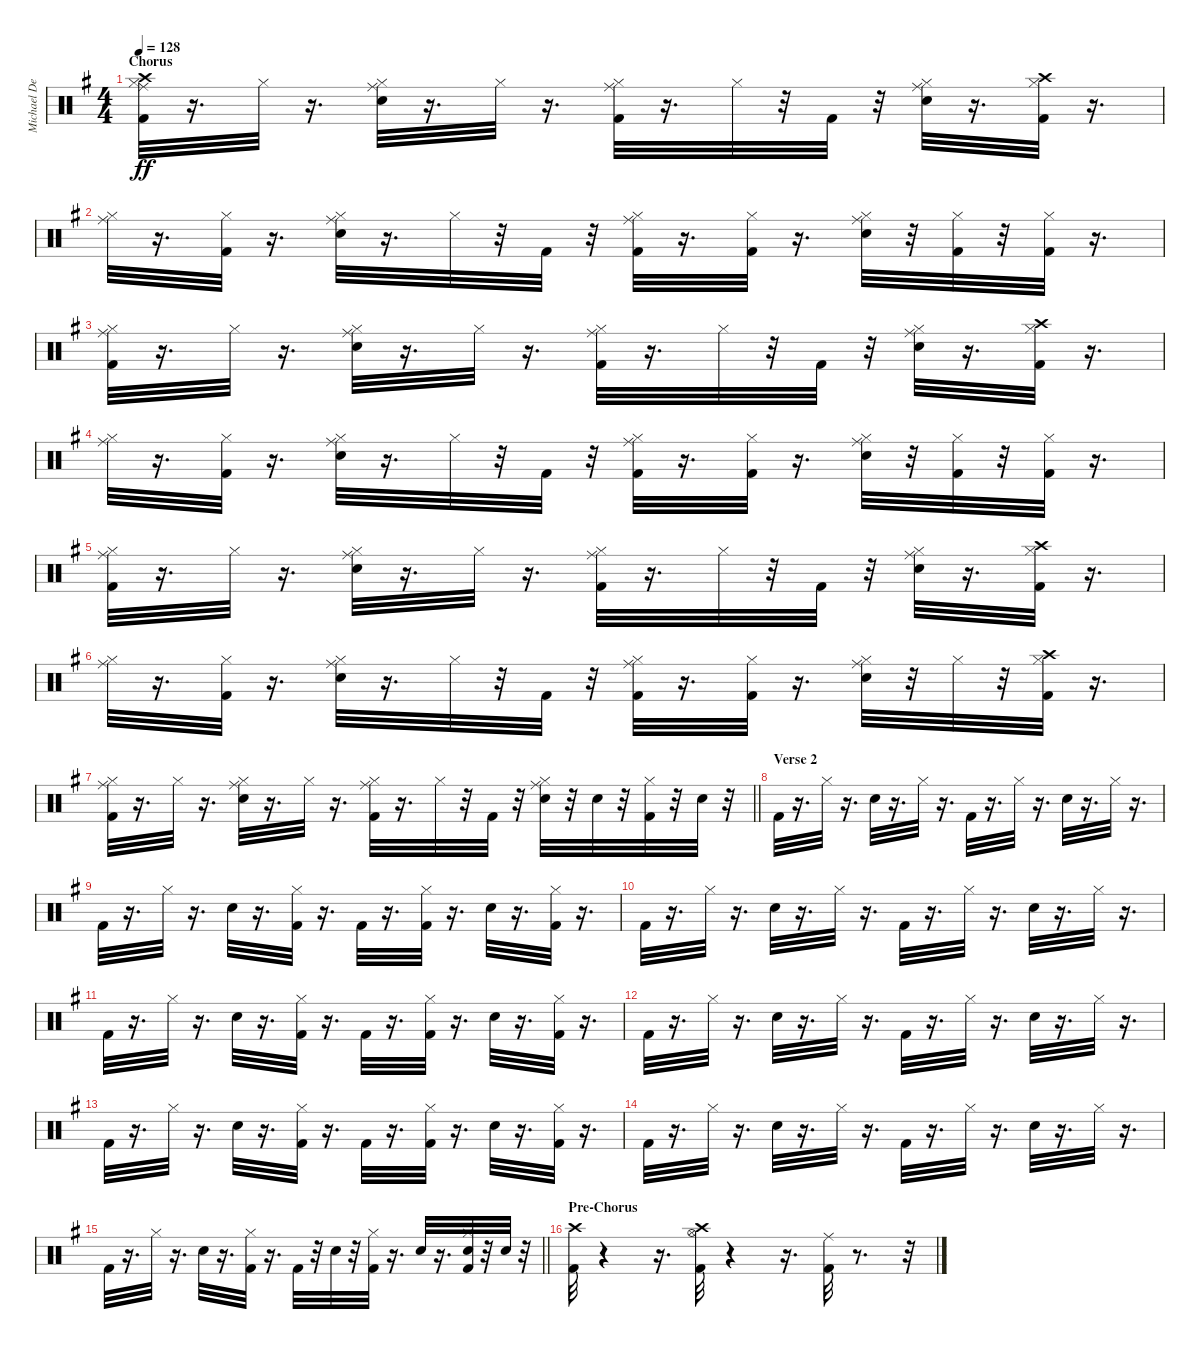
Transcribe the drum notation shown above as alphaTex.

\track ("Michael DeRosier" "Michael De") {instrument percussion}
\staff {score}
\articulation defaults
\ts (4 4)
\section ("" "Chorus")
\tempo 128
\clef neutral
\ks g
("Kick (hit) 2" "Hi-Hat (closed)" "Crash high (hit)" "Ride (middle)").32{dy ff} r.16{d} "Hi-Hat (closed)".32 r.16{d} ("Snare (hit) 2" "Hi-Hat (closed)" "Ride (middle)").32 r.16{d} "Hi-Hat (closed)".32 r.16{d} ("Kick (hit) 2" "Hi-Hat (closed)" "Ride (middle)").32 r.16{d} "Hi-Hat (closed)".32 r.32 "Kick (hit) 2".32 r.32 ("Snare (hit) 2" "Hi-Hat (closed)" "Ride (middle)").32 r.16{d} ("Kick (hit) 2" "Hi-Hat (closed)" "Crash high (hit)").32 r.16{d} |
("Hi-Hat (closed)" "Ride (middle)").32 r.16{d} ("Kick (hit) 2" "Hi-Hat (closed)").32 r.16{d} ("Snare (hit) 2" "Hi-Hat (closed)" "Ride (middle)").32 r.16{d} "Hi-Hat (closed)".32 r.32 "Kick (hit) 2".32 r.32 ("Kick (hit) 2" "Hi-Hat (closed)" "Ride (middle)").32 r.16{d} ("Kick (hit) 2" "Hi-Hat (closed)").32 r.16{d} ("Snare (hit) 2" "Hi-Hat (closed)" "Ride (middle)").32 r.32 ("Kick (hit) 2" "Hi-Hat (closed)").32 r.32 ("Kick (hit) 2" "Hi-Hat (closed)").32 r.16{d} |
("Kick (hit) 2" "Hi-Hat (closed)" "Ride (middle)").32 r.16{d} "Hi-Hat (closed)".32 r.16{d} ("Snare (hit) 2" "Hi-Hat (closed)" "Ride (middle)").32 r.16{d} "Hi-Hat (closed)".32 r.16{d} ("Kick (hit) 2" "Hi-Hat (closed)" "Ride (middle)").32 r.16{d} "Hi-Hat (closed)".32 r.32 "Kick (hit) 2".32 r.32 ("Snare (hit) 2" "Hi-Hat (closed)" "Ride (middle)").32 r.16{d} ("Kick (hit) 2" "Hi-Hat (closed)" "Crash high (hit)").32 r.16{d} |
("Hi-Hat (closed)" "Ride (middle)").32 r.16{d} ("Kick (hit) 2" "Hi-Hat (closed)").32 r.16{d} ("Snare (hit) 2" "Hi-Hat (closed)" "Ride (middle)").32 r.16{d} "Hi-Hat (closed)".32 r.32 "Kick (hit) 2".32 r.32 ("Kick (hit) 2" "Hi-Hat (closed)" "Ride (middle)").32 r.16{d} ("Kick (hit) 2" "Hi-Hat (closed)").32 r.16{d} ("Snare (hit) 2" "Hi-Hat (closed)" "Ride (middle)").32 r.32 ("Kick (hit) 2" "Hi-Hat (closed)").32 r.32 ("Kick (hit) 2" "Hi-Hat (closed)").32 r.16{d} |
("Kick (hit) 2" "Hi-Hat (closed)" "Ride (middle)").32 r.16{d} "Hi-Hat (closed)".32 r.16{d} ("Snare (hit) 2" "Hi-Hat (closed)" "Ride (middle)").32 r.16{d} "Hi-Hat (closed)".32 r.16{d} ("Kick (hit) 2" "Hi-Hat (closed)" "Ride (middle)").32 r.16{d} "Hi-Hat (closed)".32 r.32 "Kick (hit) 2".32 r.32 ("Snare (hit) 2" "Hi-Hat (closed)" "Ride (middle)").32 r.16{d} ("Kick (hit) 2" "Hi-Hat (closed)" "Crash high (hit)").32 r.16{d} |
("Hi-Hat (closed)" "Ride (middle)").32 r.16{d} ("Kick (hit) 2" "Hi-Hat (closed)").32 r.16{d} ("Snare (hit) 2" "Hi-Hat (closed)" "Ride (middle)").32 r.16{d} "Hi-Hat (closed)".32 r.32 "Kick (hit) 2".32 r.32 ("Kick (hit) 2" "Hi-Hat (closed)" "Ride (middle)").32 r.16{d} ("Kick (hit) 2" "Hi-Hat (closed)").32 r.16{d} ("Snare (hit) 2" "Hi-Hat (closed)" "Ride (middle)").32 r.32 "Hi-Hat (closed)".32 r.32 ("Kick (hit) 2" "Hi-Hat (closed)" "Crash high (hit)").32 r.16{d} |
\barLineRight lightlight
("Kick (hit) 2" "Hi-Hat (closed)" "Ride (middle)").32 r.16{d} "Hi-Hat (closed)".32 r.16{d} ("Snare (hit) 2" "Hi-Hat (closed)" "Ride (middle)").32 r.16{d} "Hi-Hat (closed)".32 r.16{d} ("Kick (hit) 2" "Hi-Hat (closed)" "Ride (middle)").32 r.16{d} "Hi-Hat (closed)".32 r.32 "Kick (hit) 2".32 r.32 ("Snare (hit) 2" "Hi-Hat (closed)" "Ride (middle)").32 r.32 "Snare (hit) 2".32 r.32 ("Kick (hit) 2" "Hi-Hat (closed)").32 r.32 "Snare (hit) 2".32 r.32 |
\section ("" "Verse 2")
"Kick (hit) 2".32 r.16{d} "Hi-Hat (closed)".32 r.16{d} "Snare (hit) 2".32 r.16{d} "Hi-Hat (closed)".32 r.16{d} "Kick (hit) 2".32 r.16{d} "Hi-Hat (closed)".32 r.16{d} "Snare (hit) 2".32 r.16{d} "Hi-Hat (closed)".32 r.16{d} |
"Kick (hit) 2".32 r.16{d} "Hi-Hat (closed)".32 r.16{d} "Snare (hit) 2".32 r.16{d} ("Kick (hit) 2" "Hi-Hat (closed)").32 r.16{d} "Kick (hit) 2".32 r.16{d} ("Kick (hit) 2" "Hi-Hat (closed)").32 r.16{d} "Snare (hit) 2".32 r.16{d} ("Kick (hit) 2" "Hi-Hat (closed)").32 r.16{d} |
"Kick (hit) 2".32 r.16{d} "Hi-Hat (closed)".32 r.16{d} "Snare (hit) 2".32 r.16{d} "Hi-Hat (closed)".32 r.16{d} "Kick (hit) 2".32 r.16{d} "Hi-Hat (closed)".32 r.16{d} "Snare (hit) 2".32 r.16{d} "Hi-Hat (closed)".32 r.16{d} |
"Kick (hit) 2".32 r.16{d} "Hi-Hat (closed)".32 r.16{d} "Snare (hit) 2".32 r.16{d} ("Kick (hit) 2" "Hi-Hat (closed)").32 r.16{d} "Kick (hit) 2".32 r.16{d} ("Kick (hit) 2" "Hi-Hat (closed)").32 r.16{d} "Snare (hit) 2".32 r.16{d} ("Kick (hit) 2" "Hi-Hat (closed)").32 r.16{d} |
"Kick (hit) 2".32 r.16{d} "Hi-Hat (closed)".32 r.16{d} "Snare (hit) 2".32 r.16{d} "Hi-Hat (closed)".32 r.16{d} "Kick (hit) 2".32 r.16{d} "Hi-Hat (closed)".32 r.16{d} "Snare (hit) 2".32 r.16{d} "Hi-Hat (closed)".32 r.16{d} |
"Kick (hit) 2".32 r.16{d} "Hi-Hat (closed)".32 r.16{d} "Snare (hit) 2".32 r.16{d} ("Kick (hit) 2" "Hi-Hat (closed)").32 r.16{d} "Kick (hit) 2".32 r.16{d} ("Kick (hit) 2" "Hi-Hat (closed)").32 r.16{d} "Snare (hit) 2".32 r.16{d} ("Kick (hit) 2" "Hi-Hat (closed)").32 r.16{d} |
"Kick (hit) 2".32 r.16{d} "Hi-Hat (closed)".32 r.16{d} "Snare (hit) 2".32 r.16{d} "Hi-Hat (closed)".32 r.16{d} "Kick (hit) 2".32 r.16{d} "Hi-Hat (closed)".32 r.16{d} "Snare (hit) 2".32 r.16{d} "Hi-Hat (closed)".32 r.16{d} |
\barLineRight lightlight "Kick (hit) 2".32
r.16{d} "Hi-Hat (closed)".32 r.16{d} "Snare (hit) 2".32 r.16{d} ("Kick (hit) 2" "Hi-Hat (closed)").32 r.16{d} "Kick (hit) 2".32 r.32 "Snare (hit) 2".32 r.32 ("Kick (hit) 2" "Hi-Hat (closed)").32 r.16{d} "Snare (hit) 2".32 r.16{d} ("Kick (hit) 2" "Snare (hit) 2" "Hi-Hat (closed)").32 r.32 "Snare (hit) 2".32 r.32 |
\section ("" "Pre-Chorus")
("Kick (hit) 2" "Crash high (hit)").32 r.4 r.16{d} ("Kick (hit) 2" "Crash high (hit)" "Hi-Hat (open)").32 r.4 r.16{d} ("Kick (hit) 2" "Ride (middle)").32 r.8{d} r.32
